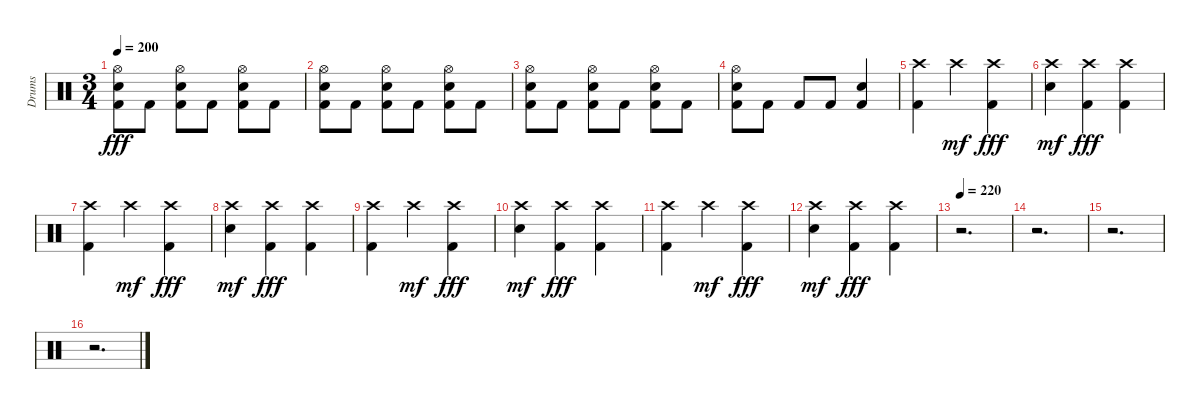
\track ("Drums" "Drums") {instrument percussion}
\staff {score}
\articulation defaults
\ts (3 4)
\tempo 200
\clef neutral
\ks c
("Hi-Hat (open)" "Electric Snare (hit)" "Kick (hit) 2").8{dy fff} "Kick (hit) 2".8 ("Hi-Hat (open)" "Electric Snare (hit)" "Kick (hit) 2").8 "Kick (hit) 2".8 ("Hi-Hat (open)" "Electric Snare (hit)" "Kick (hit) 2").8 "Kick (hit) 2".8 |
("Hi-Hat (open)" "Electric Snare (hit)" "Kick (hit) 2").8 "Kick (hit) 2".8 ("Hi-Hat (open)" "Electric Snare (hit)" "Kick (hit) 2").8 "Kick (hit) 2".8 ("Hi-Hat (open)" "Electric Snare (hit)" "Kick (hit) 2").8 "Kick (hit) 2".8 |
("Hi-Hat (open)" "Electric Snare (hit)" "Kick (hit) 2").8 "Kick (hit) 2".8 ("Hi-Hat (open)" "Electric Snare (hit)" "Kick (hit) 2").8 "Kick (hit) 2".8 ("Hi-Hat (open)" "Electric Snare (hit)" "Kick (hit) 2").8 "Kick (hit) 2".8 |
("Hi-Hat (open)" "Electric Snare (hit)" "Kick (hit) 2").8 "Kick (hit) 2".8 "Kick (hit) 2".8 "Kick (hit) 2".8 ("Electric Snare (hit)" "Kick (hit) 2").4 |
("Crash high (hit)" "Kick (hit) 2").4 "Crash high (hit)".4{dy mf} ("Crash high (hit)" "Kick (hit) 2").4{dy fff} |
("Crash high (hit)" "Electric Snare (hit)").4{dy mf} ("Crash high (hit)" "Kick (hit) 2").4{dy fff} ("Crash high (hit)" "Kick (hit) 2").4 |
("Crash high (hit)" "Kick (hit) 2").4 "Crash high (hit)".4{dy mf} ("Crash high (hit)" "Kick (hit) 2").4{dy fff} |
("Crash high (hit)" "Electric Snare (hit)").4{dy mf} ("Crash high (hit)" "Kick (hit) 2").4{dy fff} ("Crash high (hit)" "Kick (hit) 2").4 |
("Crash high (hit)" "Kick (hit) 2").4 "Crash high (hit)".4{dy mf} ("Crash high (hit)" "Kick (hit) 2").4{dy fff} |
("Crash high (hit)" "Electric Snare (hit)").4{dy mf} ("Crash high (hit)" "Kick (hit) 2").4{dy fff} ("Crash high (hit)" "Kick (hit) 2").4 |
("Crash high (hit)" "Kick (hit) 2").4 "Crash high (hit)".4{dy mf} ("Crash high (hit)" "Kick (hit) 2").4{dy fff} |
("Crash high (hit)" "Electric Snare (hit)").4{dy mf} ("Crash high (hit)" "Kick (hit) 2").4{dy fff} ("Crash high (hit)" "Kick (hit) 2").4 |
\tempo 220
r.2{d} |
r.2{d} |
r.2{d} |
r.2{d}
